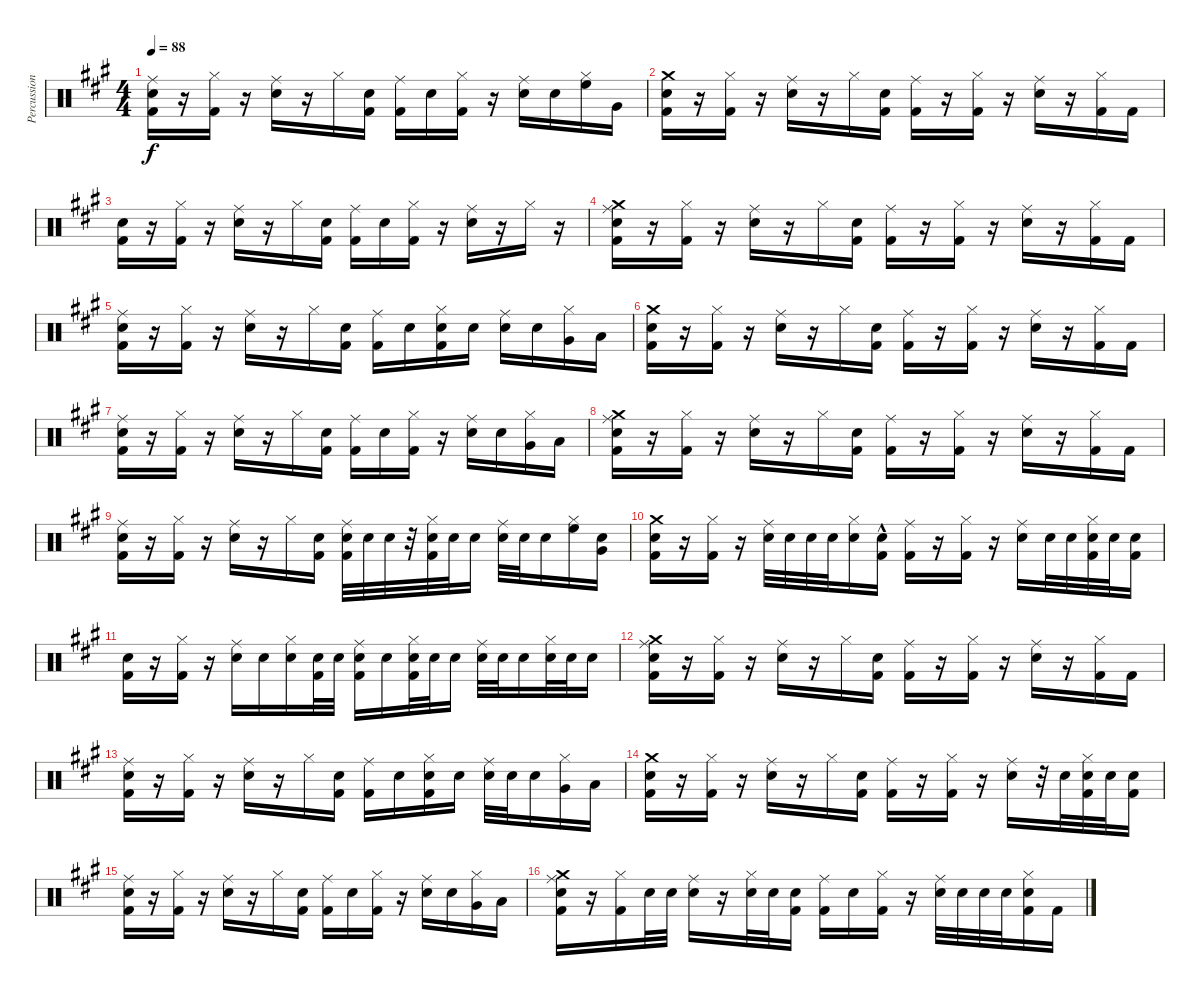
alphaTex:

\track ("Percussion" "Percussion") {instrument percussion}
\staff {score}
\articulation defaults
\ts (4 4)
\tempo 88
\clef neutral
\ks f#minor
("Ride (middle)" "Kick (hit) 2" "Snare (hit) 2").16{dy f} r.16 ("Hi-Hat (closed)" "Kick (hit) 2").16 r.16 ("Ride (middle)" "Snare (hit) 2").16 r.16 "Hi-Hat (closed)".16 ("Snare (hit) 2" "Kick (hit) 2").16 ("Ride (middle)" "Kick (hit) 2").16 "Snare (hit) 2".16 ("Hi-Hat (closed)" "Kick (hit) 2").16 r.16 ("Snare (hit) 2" "Ride (middle)").16 "Snare (hit) 2".16 ("High Floor Tom (hit)" "Hi-Hat (closed)").16 "Very Low Tom (hit)".16 |
("Crash medium (hit)" "Snare (hit) 2" "Kick (hit) 2").16 r.16 ("Kick (hit) 2" "Hi-Hat (closed)").16 r.16 ("Ride (middle)" "Snare (hit) 2").16 r.16 "Hi-Hat (closed)".16 ("Snare (hit) 2" "Kick (hit) 2").16 ("Ride (middle)" "Kick (hit) 2").16 r.16 ("Hi-Hat (closed)" "Kick (hit) 2").16 r.16 ("Snare (hit) 2" "Ride (middle)").16 r.16 ("Kick (hit) 2" "Hi-Hat (closed)").16 "Kick (hit) 2".16 |
("Snare (hit) 2" "Kick (hit) 2").16 r.16 ("Hi-Hat (closed)" "Kick (hit) 2").16 r.16 ("Ride (middle)" "Snare (hit) 2").16 r.16 "Hi-Hat (closed)".16 ("Snare (hit) 2" "Kick (hit) 2").16 ("Kick (hit) 2" "Ride (middle)").16 "Snare (hit) 2".16 ("Hi-Hat (closed)" "Kick (hit) 2").16 r.16 ("Snare (hit) 2" "Ride (middle)").16 r.16 "Hi-Hat (closed)".16 r.16 |
("Ride (middle)" "Kick (hit) 2" "Crash medium (hit)" "Snare (hit) 2").16 r.16 ("Kick (hit) 2" "Hi-Hat (closed)").16 r.16 ("Ride (middle)" "Snare (hit) 2").16 r.16 "Hi-Hat (closed)".16 ("Snare (hit) 2" "Kick (hit) 2").16 ("Kick (hit) 2" "Ride (middle)").16 r.16 ("Hi-Hat (closed)" "Kick (hit) 2").16 r.16 ("Snare (hit) 2" "Ride (middle)").16 r.16 ("Kick (hit) 2" "Hi-Hat (closed)").16 "Kick (hit) 2".16 |
("Ride (middle)" "Kick (hit) 2" "Snare (hit) 2").16 r.16 ("Hi-Hat (closed)" "Kick (hit) 2").16 r.16 ("Ride (middle)" "Snare (hit) 2").16 r.16 "Hi-Hat (closed)".16 ("Snare (hit) 2" "Kick (hit) 2").16 ("Ride (middle)" "Kick (hit) 2").16 "Snare (hit) 2".16 ("Snare (hit) 2" "Hi-Hat (closed)" "Kick (hit) 2").16 "Snare (hit) 2".16 ("Snare (hit) 2" "Ride (middle)").16 "Snare (hit) 2".16 ("Very Low Tom (hit)" "Hi-Hat (closed)").16 "Low Floor Tom (hit)".16 |
("Crash medium (hit)" "Snare (hit) 2" "Kick (hit) 2").16 r.16 ("Kick (hit) 2" "Hi-Hat (closed)").16 r.16 ("Ride (middle)" "Snare (hit) 2").16 r.16 "Hi-Hat (closed)".16 ("Snare (hit) 2" "Kick (hit) 2").16 ("Ride (middle)" "Kick (hit) 2").16 r.16 ("Hi-Hat (closed)" "Kick (hit) 2").16 r.16 ("Snare (hit) 2" "Ride (middle)").16 r.16 ("Kick (hit) 2" "Hi-Hat (closed)").16 "Kick (hit) 2".16 |
("Ride (middle)" "Snare (hit) 2" "Kick (hit) 2").16 r.16 ("Hi-Hat (closed)" "Kick (hit) 2").16 r.16 ("Ride (middle)" "Snare (hit) 2").16 r.16 "Hi-Hat (closed)".16 ("Snare (hit) 2" "Kick (hit) 2").16 ("Kick (hit) 2" "Ride (middle)").16 "Snare (hit) 2".16 ("Hi-Hat (closed)" "Kick (hit) 2").16 r.16 ("Snare (hit) 2" "Ride (middle)").16 "Snare (hit) 2".16 ("Hi-Hat (closed)" "Very Low Tom (hit)").16 "Low Floor Tom (hit)".16 |
("Crash medium (hit)" "Snare (hit) 2" "Ride (middle)" "Kick (hit) 2").16 r.16 ("Kick (hit) 2" "Hi-Hat (closed)").16 r.16 ("Ride (middle)" "Snare (hit) 2").16 r.16 "Hi-Hat (closed)".16 ("Snare (hit) 2" "Kick (hit) 2").16 ("Kick (hit) 2" "Ride (middle)").16 r.16 ("Hi-Hat (closed)" "Kick (hit) 2").16 r.16 ("Snare (hit) 2" "Ride (middle)").16 r.16 ("Kick (hit) 2" "Hi-Hat (closed)").16 "Kick (hit) 2".16 |
("Ride (middle)" "Kick (hit) 2" "Snare (hit) 2").16 r.16 ("Hi-Hat (closed)" "Kick (hit) 2").16 r.16 ("Ride (middle)" "Snare (hit) 2").16 r.16 "Hi-Hat (closed)".16 ("Snare (hit) 2" "Kick (hit) 2").16 ("Snare (hit) 2" "Ride (middle)" "Kick (hit) 2").32 "Snare (hit) 2".32 "Snare (hit) 2".32 r.32 ("Snare (hit) 2" "Hi-Hat (closed)" "Kick (hit) 2").32 "Snare (hit) 2".32 "Snare (hit) 2".16 ("Snare (hit) 2" "Ride (middle)").32 "Snare (hit) 2".32 "Snare (hit) 2".16 ("High Floor Tom (hit)" "Hi-Hat (closed)").16 ("Snare (hit) 2" "Very Low Tom (hit)").16 |
("Crash medium (hit)" "Snare (hit) 2" "Kick (hit) 2").16 r.16 ("Kick (hit) 2" "Hi-Hat (closed)").16 r.16 ("Ride (middle)" "Snare (hit) 2").32 "Snare (hit) 2".32 "Snare (hit) 2".32 "Snare (hit) 2".32 ("Snare (hit) 2" "Hi-Hat (closed)").16 ("Snare (hit) 2"{hac} "Kick (hit) 2").16 ("Ride (middle)" "Kick (hit) 2").16 r.16 ("Hi-Hat (closed)" "Kick (hit) 2").16 r.16 ("Snare (hit) 2" "Ride (middle)").16 "Snare (hit) 2".32 "Snare (hit) 2".32 ("Snare (hit) 2" "Kick (hit) 2" "Hi-Hat (closed)").32 "Snare (hit) 2".32 ("Kick (hit) 2" "Snare (hit) 2").16 |
("Snare (hit) 2" "Kick (hit) 2").16 r.16 ("Hi-Hat (closed)" "Kick (hit) 2").16 r.16 ("Ride (middle)" "Snare (hit) 2").16 "Snare (hit) 2".16 ("Snare (hit) 2" "Hi-Hat (closed)").16 ("Snare (hit) 2" "Kick (hit) 2").32 "Snare (hit) 2".32 ("Snare (hit) 2" "Kick (hit) 2" "Ride (middle)").16 "Snare (hit) 2".16 ("Snare (hit) 2" "Hi-Hat (closed)" "Kick (hit) 2").32 "Snare (hit) 2".32 "Snare (hit) 2".16 ("Snare (hit) 2" "Ride (middle)").32 "Snare (hit) 2".32 "Snare (hit) 2".16 ("Snare (hit) 2" "Hi-Hat (closed)").32 "Snare (hit) 2".32 "Snare (hit) 2".16 |
("Ride (middle)" "Kick (hit) 2" "Crash medium (hit)" "Snare (hit) 2").16 r.16 ("Kick (hit) 2" "Hi-Hat (closed)").16 r.16 ("Ride (middle)" "Snare (hit) 2").16 r.16 "Hi-Hat (closed)".16 ("Snare (hit) 2" "Kick (hit) 2").16 ("Kick (hit) 2" "Ride (middle)").16 r.16 ("Hi-Hat (closed)" "Kick (hit) 2").16 r.16 ("Snare (hit) 2" "Ride (middle)").16 r.16 ("Kick (hit) 2" "Hi-Hat (closed)").16 "Kick (hit) 2".16 |
("Ride (middle)" "Kick (hit) 2" "Snare (hit) 2").16 r.16 ("Hi-Hat (closed)" "Kick (hit) 2").16 r.16 ("Ride (middle)" "Snare (hit) 2").16 r.16 "Hi-Hat (closed)".16 ("Snare (hit) 2" "Kick (hit) 2").16 ("Ride (middle)" "Kick (hit) 2").16 "Snare (hit) 2".16 ("Snare (hit) 2" "Hi-Hat (closed)" "Kick (hit) 2").16 "Snare (hit) 2".16 ("Snare (hit) 2" "Ride (middle)").32 "Snare (hit) 2".32 "Snare (hit) 2".16 ("Very Low Tom (hit)" "Hi-Hat (closed)").16 "Low Floor Tom (hit)".16 |
("Crash medium (hit)" "Snare (hit) 2" "Kick (hit) 2").16 r.16 ("Kick (hit) 2" "Hi-Hat (closed)").16 r.16 ("Ride (middle)" "Snare (hit) 2").16 r.16 "Hi-Hat (closed)".16 ("Snare (hit) 2" "Kick (hit) 2").16 ("Ride (middle)" "Kick (hit) 2").16 r.16 ("Hi-Hat (closed)" "Kick (hit) 2").16 r.16 ("Snare (hit) 2" "Ride (middle)").16 r.32 "Snare (hit) 2".32 ("Snare (hit) 2" "Kick (hit) 2" "Hi-Hat (closed)").32 "Snare (hit) 2".32 ("Snare (hit) 2" "Kick (hit) 2").16 |
("Ride (middle)" "Snare (hit) 2" "Kick (hit) 2").16 r.16 ("Hi-Hat (closed)" "Kick (hit) 2").16 r.16 ("Ride (middle)" "Snare (hit) 2").16 r.16 "Hi-Hat (closed)".16 ("Snare (hit) 2" "Kick (hit) 2").16 ("Kick (hit) 2" "Ride (middle)").16 "Snare (hit) 2".16 ("Hi-Hat (closed)" "Kick (hit) 2").16 r.16 ("Snare (hit) 2" "Ride (middle)").16 "Snare (hit) 2".16 ("Hi-Hat (closed)" "Very Low Tom (hit)").16 "Low Floor Tom (hit)".16 |
("Crash medium (hit)" "Snare (hit) 2" "Ride (middle)" "Kick (hit) 2").16 r.16 ("Kick (hit) 2" "Hi-Hat (closed)").16 "Snare (hit) 2".32 "Snare (hit) 2".32 ("Ride (middle)" "Snare (hit) 2").16 r.16 ("Snare (hit) 2" "Hi-Hat (closed)").32 "Snare (hit) 2".32 ("Snare (hit) 2" "Kick (hit) 2").16 ("Kick (hit) 2" "Ride (middle)").16 "Snare (hit) 2".16 ("Hi-Hat (closed)" "Kick (hit) 2").16 r.16 ("Snare (hit) 2" "Ride (middle)").32 "Snare (hit) 2".32 "Snare (hit) 2".32 "Snare (hit) 2".32 ("Snare (hit) 2" "Kick (hit) 2" "Hi-Hat (closed)").16 "Kick (hit) 2".16
